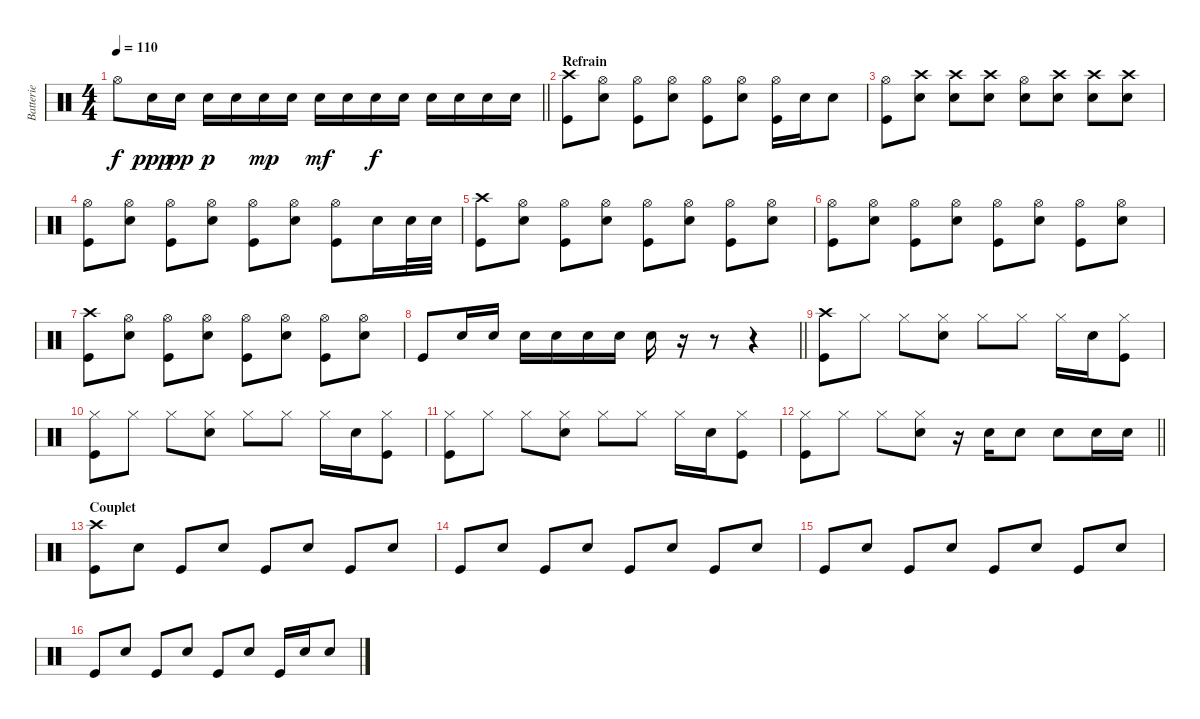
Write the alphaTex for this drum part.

\track ("Batterie" "Batterie") {instrument percussion}
\staff {score}
\articulation defaults
\ts (4 4)
\tempo 110
\clef neutral
\barLineRight lightlight
\ks c "Hi-Hat (open)".8{dy f} "Snare (hit) 2".16{dy ppp} "Snare (hit) 2".16{dy pp} "Snare (hit) 2".16{dy p} "Snare (hit) 2".16 "Snare (hit) 2".16{dy mp} "Snare (hit) 2".16 "Snare (hit) 2".16{dy mf} "Snare (hit) 2".16 "Snare (hit) 2".16{dy f} "Snare (hit) 2".16 "Snare (hit) 2".16 "Snare (hit) 2".16 "Snare (hit) 2".16 "Snare (hit) 2".16
|
\section ("" "Refrain")
("Kick (hit)" "Crash high (hit)").8 ("Snare (hit) 2" "Hi-Hat (open)").8 ("Kick (hit)" "Hi-Hat (open)").8 ("Snare (hit) 2" "Hi-Hat (open)").8 ("Kick (hit)" "Hi-Hat (open)").8 ("Snare (hit) 2" "Hi-Hat (open)").8 ("Kick (hit)" "Hi-Hat (open)").16 "Snare (hit) 2".16 "Snare (hit) 2".8 |
("Kick (hit)" "Hi-Hat (open)").8 ("Crash high (hit)" "Snare (hit) 2").8 ("Crash high (hit)" "Snare (hit) 2").8 ("Crash high (hit)" "Snare (hit) 2").8 ("Snare (hit) 2" "Hi-Hat (open)").8 ("Crash high (hit)" "Snare (hit) 2").8 ("Crash high (hit)" "Snare (hit) 2").8 ("Crash high (hit)" "Snare (hit) 2").8 |
("Kick (hit)" "Hi-Hat (open)").8 ("Snare (hit) 2" "Hi-Hat (open)").8 ("Kick (hit)" "Hi-Hat (open)").8 ("Snare (hit) 2" "Hi-Hat (open)").8 ("Kick (hit)" "Hi-Hat (open)").8 ("Snare (hit) 2" "Hi-Hat (open)").8 ("Kick (hit)" "Hi-Hat (open)").8 "Snare (hit) 2".16 "Snare (hit) 2".32 "Snare (hit) 2".32 |
("Kick (hit)" "Crash high (hit)").8 ("Snare (hit) 2" "Hi-Hat (open)").8 ("Kick (hit)" "Hi-Hat (open)").8 ("Snare (hit) 2" "Hi-Hat (open)").8 ("Kick (hit)" "Hi-Hat (open)").8 ("Snare (hit) 2" "Hi-Hat (open)").8 ("Kick (hit)" "Hi-Hat (open)").8 ("Snare (hit) 2" "Hi-Hat (open)").8 |
("Kick (hit)" "Hi-Hat (open)").8 ("Snare (hit) 2" "Hi-Hat (open)").8 ("Kick (hit)" "Hi-Hat (open)").8 ("Snare (hit) 2" "Hi-Hat (open)").8 ("Kick (hit)" "Hi-Hat (open)").8 ("Snare (hit) 2" "Hi-Hat (open)").8 ("Kick (hit)" "Hi-Hat (open)").8 ("Snare (hit) 2" "Hi-Hat (open)").8 |
("Kick (hit)" "Crash high (hit)").8 ("Snare (hit) 2" "Hi-Hat (open)").8 ("Kick (hit)" "Hi-Hat (open)").8 ("Snare (hit) 2" "Hi-Hat (open)").8 ("Kick (hit)" "Hi-Hat (open)").8 ("Snare (hit) 2" "Hi-Hat (open)").8 ("Kick (hit)" "Hi-Hat (open)").8 ("Snare (hit) 2" "Hi-Hat (open)").8 |
\barLineRight lightlight "Kick (hit)".8 "Snare (hit) 2".16 "Snare (hit) 2".16 "Snare (hit) 2".16 "Snare (hit) 2".16 "Snare (hit) 2".16 "Snare (hit) 2".16 "Snare (hit) 2".16
r.16 r.8 r.4 |
("Crash high (hit)" "Kick (hit)").8 "Hi-Hat (closed)".8 "Hi-Hat (closed)".8 ("Snare (hit) 2" "Hi-Hat (closed)").8 "Hi-Hat (closed)".8 "Hi-Hat (closed)".8 "Hi-Hat (closed)".16 "Snare (hit) 2".16 ("Kick (hit)" "Hi-Hat (closed)").8 |
("Hi-Hat (closed)" "Kick (hit)").8 "Hi-Hat (closed)".8 "Hi-Hat (closed)".8 ("Snare (hit) 2" "Hi-Hat (closed)").8 "Hi-Hat (closed)".8 "Hi-Hat (closed)".8 "Hi-Hat (closed)".16 "Snare (hit) 2".16 ("Kick (hit)" "Hi-Hat (closed)").8 |
("Hi-Hat (closed)" "Kick (hit)").8 "Hi-Hat (closed)".8 "Hi-Hat (closed)".8 ("Snare (hit) 2" "Hi-Hat (closed)").8 "Hi-Hat (closed)".8 "Hi-Hat (closed)".8 "Hi-Hat (closed)".16 "Snare (hit) 2".16 ("Kick (hit)" "Hi-Hat (closed)").8 |
\barLineRight lightlight
("Kick (hit)" "Hi-Hat (closed)").8 "Hi-Hat (closed)".8 "Hi-Hat (closed)".8 ("Snare (hit) 2" "Hi-Hat (closed)").8 r.16 "Snare (hit) 2".16 "Snare (hit) 2".8 "Snare (hit) 2".8 "Snare (hit) 2".16 "Snare (hit) 2".16 |
\section ("" "Couplet")
("Kick (hit)" "Crash high (hit)").8 "Snare (hit) 2".8 "Kick (hit)".8 "Snare (hit) 2".8 "Kick (hit)".8 "Snare (hit) 2".8 "Kick (hit)".8 "Snare (hit) 2".8 |
"Kick (hit)".8 "Snare (hit) 2".8 "Kick (hit)".8 "Snare (hit) 2".8 "Kick (hit)".8 "Snare (hit) 2".8 "Kick (hit)".8 "Snare (hit) 2".8 |
"Kick (hit)".8 "Snare (hit) 2".8 "Kick (hit)".8 "Snare (hit) 2".8 "Kick (hit)".8 "Snare (hit) 2".8 "Kick (hit)".8 "Snare (hit) 2".8 |
"Kick (hit)".8 "Snare (hit) 2".8 "Kick (hit)".8 "Snare (hit) 2".8 "Kick (hit)".8 "Snare (hit) 2".8 "Kick (hit)".16 "Snare (hit) 2".16 "Snare (hit) 2".8
